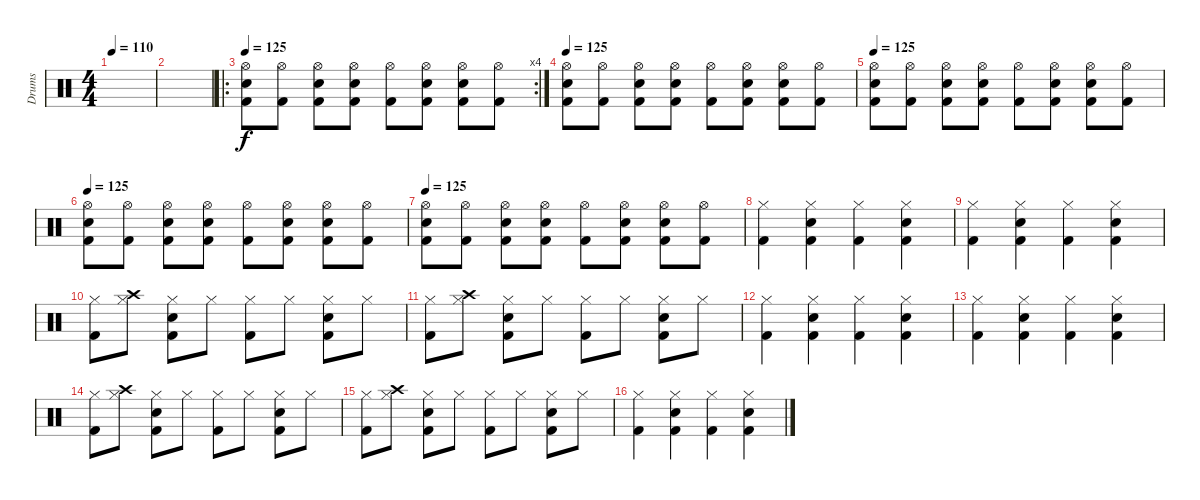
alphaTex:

\track ("Drums" "Drums") {instrument percussion}
\staff {score}
\articulation defaults
\ts (4 4)
\tempo 110
\clef neutral
\ks c
|
|
\ro
\rc 4
\tempo 125
("Hi-Hat (open)" "Kick (hit) 2" "Electric Snare (hit)").8 ("Hi-Hat (open)" "Kick (hit) 2").8 ("Hi-Hat (open)" "Kick (hit) 2" "Electric Snare (hit)").8 ("Hi-Hat (open)" "Kick (hit) 2" "Electric Snare (hit)").8 ("Hi-Hat (open)" "Kick (hit) 2").8 ("Hi-Hat (open)" "Kick (hit) 2" "Electric Snare (hit)").8 ("Hi-Hat (open)" "Kick (hit) 2" "Electric Snare (hit)").8 ("Hi-Hat (open)" "Kick (hit) 2").8 |
\tempo 125
("Hi-Hat (open)" "Kick (hit) 2" "Electric Snare (hit)").8 ("Hi-Hat (open)" "Kick (hit) 2").8 ("Hi-Hat (open)" "Kick (hit) 2" "Electric Snare (hit)").8 ("Hi-Hat (open)" "Kick (hit) 2" "Electric Snare (hit)").8 ("Hi-Hat (open)" "Kick (hit) 2").8 ("Hi-Hat (open)" "Kick (hit) 2" "Electric Snare (hit)").8 ("Hi-Hat (open)" "Kick (hit) 2" "Electric Snare (hit)").8 ("Hi-Hat (open)" "Kick (hit) 2").8 |
\tempo 125
("Hi-Hat (open)" "Kick (hit) 2" "Electric Snare (hit)").8 ("Hi-Hat (open)" "Kick (hit) 2").8 ("Hi-Hat (open)" "Kick (hit) 2" "Electric Snare (hit)").8 ("Hi-Hat (open)" "Kick (hit) 2" "Electric Snare (hit)").8 ("Hi-Hat (open)" "Kick (hit) 2").8 ("Hi-Hat (open)" "Kick (hit) 2" "Electric Snare (hit)").8 ("Hi-Hat (open)" "Kick (hit) 2" "Electric Snare (hit)").8 ("Hi-Hat (open)" "Kick (hit) 2").8 |
\tempo 125
("Hi-Hat (open)" "Kick (hit) 2" "Electric Snare (hit)").8 ("Hi-Hat (open)" "Kick (hit) 2").8 ("Hi-Hat (open)" "Kick (hit) 2" "Electric Snare (hit)").8 ("Hi-Hat (open)" "Kick (hit) 2" "Electric Snare (hit)").8 ("Hi-Hat (open)" "Kick (hit) 2").8 ("Hi-Hat (open)" "Kick (hit) 2" "Electric Snare (hit)").8 ("Hi-Hat (open)" "Kick (hit) 2" "Electric Snare (hit)").8 ("Hi-Hat (open)" "Kick (hit) 2").8 |
\tempo 125
("Hi-Hat (open)" "Kick (hit) 2" "Electric Snare (hit)").8 ("Hi-Hat (open)" "Kick (hit) 2").8 ("Hi-Hat (open)" "Kick (hit) 2" "Electric Snare (hit)").8 ("Hi-Hat (open)" "Kick (hit) 2" "Electric Snare (hit)").8 ("Hi-Hat (open)" "Kick (hit) 2").8 ("Hi-Hat (open)" "Kick (hit) 2" "Electric Snare (hit)").8 ("Hi-Hat (open)" "Kick (hit) 2" "Electric Snare (hit)").8 ("Hi-Hat (open)" "Kick (hit) 2").8 |
("Kick (hit) 2" "Hi-Hat (closed)").4 ("Kick (hit) 2" "Electric Snare (hit)" "Hi-Hat (closed)").4 ("Kick (hit) 2" "Hi-Hat (closed)").4 ("Kick (hit) 2" "Electric Snare (hit)" "Hi-Hat (closed)").4 |
("Kick (hit) 2" "Hi-Hat (closed)").4 ("Kick (hit) 2" "Electric Snare (hit)" "Hi-Hat (closed)").4 ("Kick (hit) 2" "Hi-Hat (closed)").4 ("Kick (hit) 2" "Electric Snare (hit)" "Hi-Hat (closed)").4 |
("Hi-Hat (closed)" "Kick (hit) 2").8 ("Hi-Hat (closed)" "Crash high (hit)").8 ("Hi-Hat (closed)" "Electric Snare (hit)" "Kick (hit) 2").8 "Hi-Hat (closed)".8 ("Hi-Hat (closed)" "Kick (hit) 2").8 "Hi-Hat (closed)".8 ("Hi-Hat (closed)" "Electric Snare (hit)" "Kick (hit) 2").8 "Hi-Hat (closed)".8 |
("Hi-Hat (closed)" "Kick (hit) 2").8 ("Hi-Hat (closed)" "Crash high (hit)").8 ("Hi-Hat (closed)" "Electric Snare (hit)" "Kick (hit) 2").8 "Hi-Hat (closed)".8 ("Hi-Hat (closed)" "Kick (hit) 2").8 "Hi-Hat (closed)".8 ("Hi-Hat (closed)" "Electric Snare (hit)" "Kick (hit) 2").8 "Hi-Hat (closed)".8 |
("Kick (hit) 2" "Hi-Hat (closed)").4 ("Kick (hit) 2" "Electric Snare (hit)" "Hi-Hat (closed)").4 ("Kick (hit) 2" "Hi-Hat (closed)").4 ("Kick (hit) 2" "Electric Snare (hit)" "Hi-Hat (closed)").4 |
("Kick (hit) 2" "Hi-Hat (closed)").4 ("Kick (hit) 2" "Electric Snare (hit)" "Hi-Hat (closed)").4 ("Kick (hit) 2" "Hi-Hat (closed)").4 ("Kick (hit) 2" "Electric Snare (hit)" "Hi-Hat (closed)").4 |
("Hi-Hat (closed)" "Kick (hit) 2").8 ("Hi-Hat (closed)" "Crash high (hit)").8 ("Hi-Hat (closed)" "Electric Snare (hit)" "Kick (hit) 2").8 "Hi-Hat (closed)".8 ("Hi-Hat (closed)" "Kick (hit) 2").8 "Hi-Hat (closed)".8 ("Hi-Hat (closed)" "Electric Snare (hit)" "Kick (hit) 2").8 "Hi-Hat (closed)".8 |
("Hi-Hat (closed)" "Kick (hit) 2").8 ("Hi-Hat (closed)" "Crash high (hit)").8 ("Hi-Hat (closed)" "Electric Snare (hit)" "Kick (hit) 2").8 "Hi-Hat (closed)".8 ("Hi-Hat (closed)" "Kick (hit) 2").8 "Hi-Hat (closed)".8 ("Hi-Hat (closed)" "Electric Snare (hit)" "Kick (hit) 2").8 "Hi-Hat (closed)".8 |
("Kick (hit) 2" "Hi-Hat (closed)").4 ("Kick (hit) 2" "Electric Snare (hit)" "Hi-Hat (closed)").4 ("Kick (hit) 2" "Hi-Hat (closed)").4 ("Kick (hit) 2" "Electric Snare (hit)" "Hi-Hat (closed)").4
